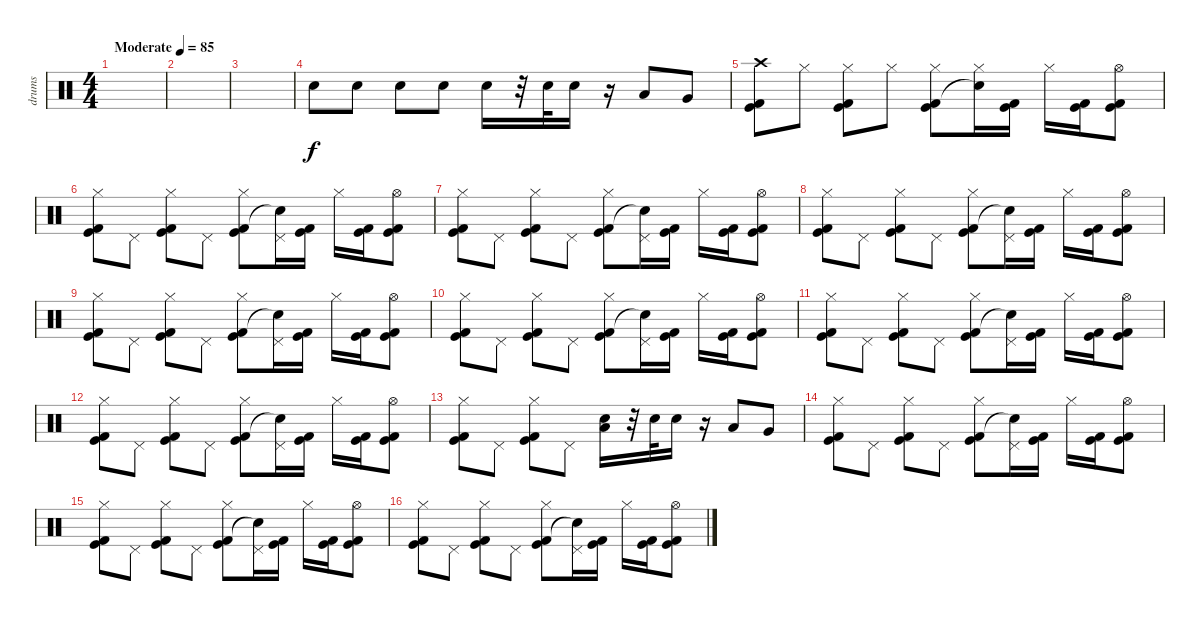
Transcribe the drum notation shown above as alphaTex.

\track ("drums" "drums") {instrument percussion}
\staff {score}
\articulation defaults
\ts (4 4)
\tempo (85 "Moderate")
\clef neutral
\ks c
|
|
|
"Snare (hit)".8 "Snare (hit)".8 "Snare (hit)".8 "Snare (hit)".8 "Snare (hit)".16 r.32 "Snare (hit) 2".32 "Snare (hit) 2".16 r.16 "Low Tom (hit)".8 "Very Low Tom (hit)".8 |
("Crash high (hit)" "Kick (hit) 2" "Kick (hit)").8 "Hi-Hat (closed)".8 ("Hi-Hat (closed)" "Kick (hit) 2" "Kick (hit)").8 "Hi-Hat (closed)".8 ("Hi-Hat (closed)" "Kick (hit) 2" "Kick (hit)").8 ("Hi-Hat (closed)" "Snare (hit)"{t}).16 ("Kick (hit) 2" "Kick (hit)").16 "Hi-Hat (closed)".16 ("Kick (hit) 2" "Kick (hit)").16 ("Hi-Hat (open)" "Kick (hit) 2" "Kick (hit)").8 |
("Hi-Hat (closed)" "Kick (hit) 2" "Kick (hit)").8 "Pedal Hi-Hat (hit)".8 ("Hi-Hat (closed)" "Kick (hit) 2" "Kick (hit)").8 "Pedal Hi-Hat (hit)".8 ("Hi-Hat (closed)" "Kick (hit) 2" "Kick (hit)").8 ("Pedal Hi-Hat (hit)" "Snare (hit)"{t}).16 ("Kick (hit) 2" "Kick (hit)").16 "Hi-Hat (closed)".16 ("Kick (hit) 2" "Kick (hit)").16 ("Hi-Hat (open)" "Kick (hit) 2" "Kick (hit)").8 |
("Hi-Hat (closed)" "Kick (hit) 2" "Kick (hit)").8 "Pedal Hi-Hat (hit)".8 ("Hi-Hat (closed)" "Kick (hit) 2" "Kick (hit)").8 "Pedal Hi-Hat (hit)".8 ("Hi-Hat (closed)" "Kick (hit) 2" "Kick (hit)").8 ("Pedal Hi-Hat (hit)" "Snare (hit)"{t}).16 ("Kick (hit) 2" "Kick (hit)").16 "Hi-Hat (closed)".16 ("Kick (hit) 2" "Kick (hit)").16 ("Hi-Hat (open)" "Kick (hit) 2" "Kick (hit)").8 |
("Hi-Hat (closed)" "Kick (hit) 2" "Kick (hit)").8 "Pedal Hi-Hat (hit)".8 ("Hi-Hat (closed)" "Kick (hit) 2" "Kick (hit)").8 "Pedal Hi-Hat (hit)".8 ("Hi-Hat (closed)" "Kick (hit) 2" "Kick (hit)").8 ("Pedal Hi-Hat (hit)" "Snare (hit)"{t}).16 ("Kick (hit) 2" "Kick (hit)").16 "Hi-Hat (closed)".16 ("Kick (hit) 2" "Kick (hit)").16 ("Hi-Hat (open)" "Kick (hit) 2" "Kick (hit)").8 |
("Hi-Hat (closed)" "Kick (hit) 2" "Kick (hit)").8 "Pedal Hi-Hat (hit)".8 ("Hi-Hat (closed)" "Kick (hit) 2" "Kick (hit)").8 "Pedal Hi-Hat (hit)".8 ("Hi-Hat (closed)" "Kick (hit) 2" "Kick (hit)").8 ("Pedal Hi-Hat (hit)" "Snare (hit)"{t}).16 ("Kick (hit) 2" "Kick (hit)").16 "Hi-Hat (closed)".16 ("Kick (hit) 2" "Kick (hit)").16 ("Hi-Hat (open)" "Kick (hit) 2" "Kick (hit)").8 |
("Hi-Hat (closed)" "Kick (hit) 2" "Kick (hit)").8 "Pedal Hi-Hat (hit)".8 ("Hi-Hat (closed)" "Kick (hit) 2" "Kick (hit)").8 "Pedal Hi-Hat (hit)".8 ("Hi-Hat (closed)" "Kick (hit) 2" "Kick (hit)").8 ("Pedal Hi-Hat (hit)" "Snare (hit)"{t}).16 ("Kick (hit) 2" "Kick (hit)").16 "Hi-Hat (closed)".16 ("Kick (hit) 2" "Kick (hit)").16 ("Hi-Hat (open)" "Kick (hit) 2" "Kick (hit)").8 |
("Hi-Hat (closed)" "Kick (hit) 2" "Kick (hit)").8 "Pedal Hi-Hat (hit)".8 ("Hi-Hat (closed)" "Kick (hit) 2" "Kick (hit)").8 "Pedal Hi-Hat (hit)".8 ("Hi-Hat (closed)" "Kick (hit) 2" "Kick (hit)").8 ("Pedal Hi-Hat (hit)" "Snare (hit)"{t}).16 ("Kick (hit) 2" "Kick (hit)").16 "Hi-Hat (closed)".16 ("Kick (hit) 2" "Kick (hit)").16 ("Hi-Hat (open)" "Kick (hit) 2" "Kick (hit)").8 |
("Hi-Hat (closed)" "Kick (hit) 2" "Kick (hit)").8 "Pedal Hi-Hat (hit)".8 ("Hi-Hat (closed)" "Kick (hit) 2" "Kick (hit)").8 "Pedal Hi-Hat (hit)".8 ("Hi-Hat (closed)" "Kick (hit) 2" "Kick (hit)").8 ("Pedal Hi-Hat (hit)" "Snare (hit)"{t}).16 ("Kick (hit) 2" "Kick (hit)").16 "Hi-Hat (closed)".16 ("Kick (hit) 2" "Kick (hit)").16 ("Hi-Hat (open)" "Kick (hit) 2" "Kick (hit)").8 |
("Hi-Hat (closed)" "Kick (hit) 2" "Kick (hit)").8 "Pedal Hi-Hat (hit)".8 ("Hi-Hat (closed)" "Kick (hit) 2" "Kick (hit)").8 "Pedal Hi-Hat (hit)".8 ("Low Floor Tom (hit)" "Snare (hit) 2").16 r.32 "Snare (hit) 2".32 "Snare (hit) 2".16 r.16 "Low Tom (hit)".8 "Very Low Tom (hit)".8 |
("Hi-Hat (closed)" "Kick (hit) 2" "Kick (hit)").8 "Pedal Hi-Hat (hit)".8 ("Hi-Hat (closed)" "Kick (hit) 2" "Kick (hit)").8 "Pedal Hi-Hat (hit)".8 ("Hi-Hat (closed)" "Kick (hit) 2" "Kick (hit)").8 ("Pedal Hi-Hat (hit)" "Snare (hit)"{t}).16 ("Kick (hit) 2" "Kick (hit)").16 "Hi-Hat (closed)".16 ("Kick (hit) 2" "Kick (hit)").16 ("Hi-Hat (open)" "Kick (hit) 2" "Kick (hit)").8 |
("Hi-Hat (closed)" "Kick (hit) 2" "Kick (hit)").8 "Pedal Hi-Hat (hit)".8 ("Hi-Hat (closed)" "Kick (hit) 2" "Kick (hit)").8 "Pedal Hi-Hat (hit)".8 ("Hi-Hat (closed)" "Kick (hit) 2" "Kick (hit)").8 ("Pedal Hi-Hat (hit)" "Snare (hit)"{t}).16 ("Kick (hit) 2" "Kick (hit)").16 "Hi-Hat (closed)".16 ("Kick (hit) 2" "Kick (hit)").16 ("Hi-Hat (open)" "Kick (hit) 2" "Kick (hit)").8 |
("Hi-Hat (closed)" "Kick (hit) 2" "Kick (hit)").8 "Pedal Hi-Hat (hit)".8 ("Hi-Hat (closed)" "Kick (hit) 2" "Kick (hit)").8 "Pedal Hi-Hat (hit)".8 ("Hi-Hat (closed)" "Kick (hit) 2" "Kick (hit)").8 ("Pedal Hi-Hat (hit)" "Snare (hit)"{t}).16 ("Kick (hit) 2" "Kick (hit)").16 "Hi-Hat (closed)".16 ("Kick (hit) 2" "Kick (hit)").16 ("Hi-Hat (open)" "Kick (hit) 2" "Kick (hit)").8
